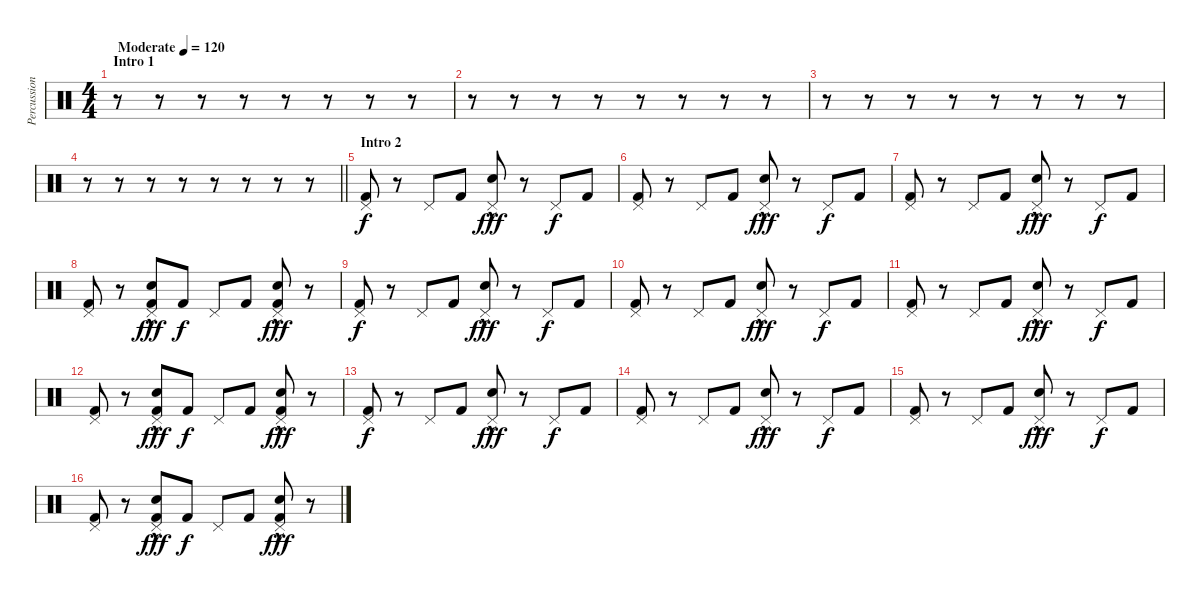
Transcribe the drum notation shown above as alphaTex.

\track ("Percussion" "Percussion") {instrument percussion}
\staff {score}
\articulation defaults
\ts (4 4)
\section ("" "Intro 1")
\tempo (120 "Moderate")
\tempo 152
\tempo (120 "Moderate")
\clef neutral
\ks c
r.8{dy f} r.8 r.8 r.8 r.8 r.8 r.8 r.8 |
r.8 r.8 r.8 r.8 r.8 r.8 r.8 r.8 |
r.8 r.8 r.8 r.8 r.8 r.8 r.8 r.8 |
\barLineRight lightlight
r.8 r.8 r.8 r.8 r.8 r.8 r.8 r.8 |
\section ("" "Intro 2")
("Kick (hit) 2" "Pedal Hi-Hat (hit)").8 r.8 "Pedal Hi-Hat (hit)".8 "Kick (hit) 2".8 ("Snare (hit) 2"{hac} "Pedal Hi-Hat (hit)").8{dy fff} r.8 "Pedal Hi-Hat (hit)".8{dy f} "Kick (hit) 2".8 |
("Kick (hit) 2" "Pedal Hi-Hat (hit)").8 r.8 "Pedal Hi-Hat (hit)".8 "Kick (hit) 2".8 ("Snare (hit) 2"{hac} "Pedal Hi-Hat (hit)").8{dy fff} r.8 "Pedal Hi-Hat (hit)".8{dy f} "Kick (hit) 2".8 |
("Kick (hit) 2" "Pedal Hi-Hat (hit)").8 r.8 "Pedal Hi-Hat (hit)".8 "Kick (hit) 2".8 ("Snare (hit) 2"{hac} "Pedal Hi-Hat (hit)").8{dy fff} r.8 "Pedal Hi-Hat (hit)".8{dy f} "Kick (hit) 2".8 |
("Kick (hit) 2" "Pedal Hi-Hat (hit)").8 r.8 ("Kick (hit) 2" "Snare (hit) 2"{hac} "Pedal Hi-Hat (hit)").8{dy fff} "Kick (hit) 2".8{dy f} "Pedal Hi-Hat (hit)".8 "Kick (hit) 2".8 ("Kick (hit) 2" "Snare (hit) 2"{hac} "Pedal Hi-Hat (hit)").8{dy fff} r.8 |
("Kick (hit) 2" "Pedal Hi-Hat (hit)").8{dy f} r.8 "Pedal Hi-Hat (hit)".8 "Kick (hit) 2".8 ("Snare (hit) 2"{hac} "Pedal Hi-Hat (hit)").8{dy fff} r.8 "Pedal Hi-Hat (hit)".8{dy f} "Kick (hit) 2".8 |
("Kick (hit) 2" "Pedal Hi-Hat (hit)").8 r.8 "Pedal Hi-Hat (hit)".8 "Kick (hit) 2".8 ("Snare (hit) 2"{hac} "Pedal Hi-Hat (hit)").8{dy fff} r.8 "Pedal Hi-Hat (hit)".8{dy f} "Kick (hit) 2".8 |
("Kick (hit) 2" "Pedal Hi-Hat (hit)").8 r.8 "Pedal Hi-Hat (hit)".8 "Kick (hit) 2".8 ("Snare (hit) 2"{hac} "Pedal Hi-Hat (hit)").8{dy fff} r.8 "Pedal Hi-Hat (hit)".8{dy f} "Kick (hit) 2".8 |
("Kick (hit) 2" "Pedal Hi-Hat (hit)").8 r.8 ("Kick (hit) 2" "Snare (hit) 2"{hac} "Pedal Hi-Hat (hit)").8{dy fff} "Kick (hit) 2".8{dy f} "Pedal Hi-Hat (hit)".8 "Kick (hit) 2".8 ("Kick (hit) 2" "Snare (hit) 2"{hac} "Pedal Hi-Hat (hit)").8{dy fff} r.8 |
("Kick (hit) 2" "Pedal Hi-Hat (hit)").8{dy f} r.8 "Pedal Hi-Hat (hit)".8 "Kick (hit) 2".8 ("Snare (hit) 2"{hac} "Pedal Hi-Hat (hit)").8{dy fff} r.8 "Pedal Hi-Hat (hit)".8{dy f} "Kick (hit) 2".8 |
("Kick (hit) 2" "Pedal Hi-Hat (hit)").8 r.8 "Pedal Hi-Hat (hit)".8 "Kick (hit) 2".8 ("Snare (hit) 2"{hac} "Pedal Hi-Hat (hit)").8{dy fff} r.8 "Pedal Hi-Hat (hit)".8{dy f} "Kick (hit) 2".8 |
("Kick (hit) 2" "Pedal Hi-Hat (hit)").8 r.8 "Pedal Hi-Hat (hit)".8 "Kick (hit) 2".8 ("Snare (hit) 2"{hac} "Pedal Hi-Hat (hit)").8{dy fff} r.8 "Pedal Hi-Hat (hit)".8{dy f} "Kick (hit) 2".8 |
("Kick (hit) 2" "Pedal Hi-Hat (hit)").8 r.8 ("Kick (hit) 2" "Snare (hit) 2"{hac} "Pedal Hi-Hat (hit)").8{dy fff} "Kick (hit) 2".8{dy f} "Pedal Hi-Hat (hit)".8 "Kick (hit) 2".8 ("Kick (hit) 2" "Snare (hit) 2"{hac} "Pedal Hi-Hat (hit)").8{dy fff} r.8
